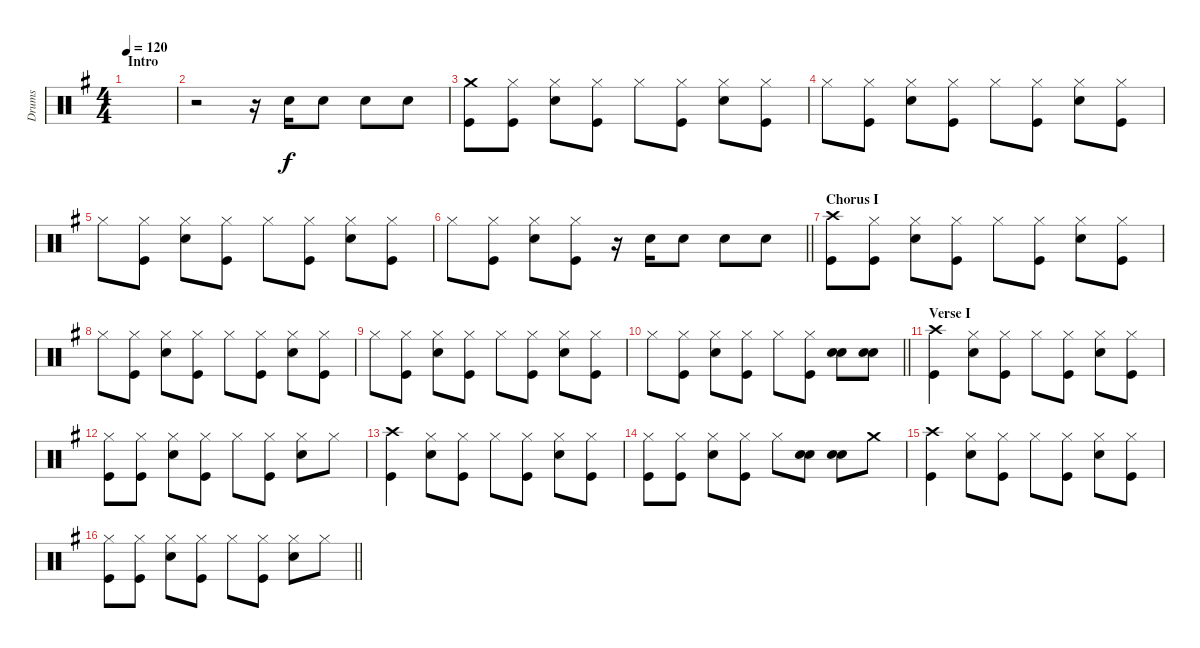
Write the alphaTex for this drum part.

\track ("Drums" "Drums") {instrument percussion}
\staff {score}
\articulation defaults
\ts (4 4)
\section ("" "Intro")
\tempo 120
\clef neutral
\ks g
|
r.2 r.16 "Snare (hit) 2".16 "Snare (hit) 2".8 "Snare (hit) 2".8 "Snare (hit) 2".8 |
("Crash medium (hit)" "Kick (hit)").8 ("Hi-Hat (closed)" "Kick (hit)").8 ("Hi-Hat (closed)" "Snare (hit) 2").8 ("Hi-Hat (closed)" "Kick (hit)").8 "Hi-Hat (closed)".8 ("Hi-Hat (closed)" "Kick (hit)").8 ("Hi-Hat (closed)" "Snare (hit) 2").8 ("Hi-Hat (closed)" "Kick (hit)").8 |
"Hi-Hat (closed)".8 ("Hi-Hat (closed)" "Kick (hit)").8 ("Hi-Hat (closed)" "Snare (hit) 2").8 ("Hi-Hat (closed)" "Kick (hit)").8 "Hi-Hat (closed)".8 ("Hi-Hat (closed)" "Kick (hit)").8 ("Hi-Hat (closed)" "Snare (hit) 2").8 ("Hi-Hat (closed)" "Kick (hit)").8 |
"Hi-Hat (closed)".8 ("Hi-Hat (closed)" "Kick (hit)").8 ("Hi-Hat (closed)" "Snare (hit) 2").8 ("Hi-Hat (closed)" "Kick (hit)").8 "Hi-Hat (closed)".8 ("Hi-Hat (closed)" "Kick (hit)").8 ("Hi-Hat (closed)" "Snare (hit) 2").8 ("Hi-Hat (closed)" "Kick (hit)").8 |
\barLineRight lightlight "Hi-Hat (closed)".8
("Hi-Hat (closed)" "Kick (hit)").8 ("Hi-Hat (closed)" "Snare (hit) 2").8 ("Hi-Hat (closed)" "Kick (hit)").8 r.16 "Snare (hit) 2".16 "Snare (hit) 2".8 "Snare (hit) 2".8 "Snare (hit) 2".8 |
\section ("" "Chorus I")
("Crash high (hit)" "Kick (hit)").8 ("Hi-Hat (closed)" "Kick (hit)").8 ("Hi-Hat (closed)" "Snare (hit) 2").8 ("Hi-Hat (closed)" "Kick (hit)").8 "Hi-Hat (closed)".8 ("Hi-Hat (closed)" "Kick (hit)").8 ("Hi-Hat (closed)" "Snare (hit) 2").8 ("Hi-Hat (closed)" "Kick (hit)").8 |
"Hi-Hat (closed)".8 ("Hi-Hat (closed)" "Kick (hit)").8 ("Hi-Hat (closed)" "Snare (hit) 2").8 ("Hi-Hat (closed)" "Kick (hit)").8 "Hi-Hat (closed)".8 ("Hi-Hat (closed)" "Kick (hit)").8 ("Hi-Hat (closed)" "Snare (hit) 2").8 ("Hi-Hat (closed)" "Kick (hit)").8 |
"Hi-Hat (closed)".8 ("Hi-Hat (closed)" "Kick (hit)").8 ("Hi-Hat (closed)" "Snare (hit) 2").8 ("Hi-Hat (closed)" "Kick (hit)").8 "Hi-Hat (closed)".8 ("Hi-Hat (closed)" "Kick (hit)").8 ("Hi-Hat (closed)" "Snare (hit) 2").8 ("Hi-Hat (closed)" "Kick (hit)").8 |
\barLineRight lightlight "Hi-Hat (closed)".8
("Hi-Hat (closed)" "Kick (hit)").8 ("Hi-Hat (closed)" "Snare (hit) 2").8 ("Hi-Hat (closed)" "Kick (hit)").8 "Hi-Hat (closed)".8 ("Hi-Hat (closed)" "Kick (hit)").8 ("Snare (hit) 2" "Snare (hit) 2").8 ("Snare (hit) 2" "Snare (hit) 2").8 |
\section ("" "Verse I")
("Crash high (hit)" "Kick (hit)").4 ("Hi-Hat (closed)" "Snare (hit) 2").8 ("Hi-Hat (closed)" "Kick (hit)").8 "Hi-Hat (closed)".8 ("Hi-Hat (closed)" "Kick (hit)").8 ("Hi-Hat (closed)" "Snare (hit) 2").8 ("Hi-Hat (closed)" "Kick (hit)").8 |
("Hi-Hat (closed)" "Kick (hit)").8 ("Hi-Hat (closed)" "Kick (hit)").8 ("Hi-Hat (closed)" "Snare (hit) 2").8 ("Hi-Hat (closed)" "Kick (hit)").8 "Hi-Hat (closed)".8 ("Hi-Hat (closed)" "Kick (hit)").8 ("Hi-Hat (closed)" "Snare (hit) 2").8 "Hi-Hat (closed)".8 |
("Crash high (hit)" "Kick (hit)").4 ("Hi-Hat (closed)" "Snare (hit) 2").8 ("Hi-Hat (closed)" "Kick (hit)").8 "Hi-Hat (closed)".8 ("Hi-Hat (closed)" "Kick (hit)").8 ("Hi-Hat (closed)" "Snare (hit) 2").8 ("Hi-Hat (closed)" "Kick (hit)").8 |
("Hi-Hat (closed)" "Kick (hit)").8 ("Hi-Hat (closed)" "Kick (hit)").8 ("Hi-Hat (closed)" "Snare (hit) 2").8 ("Hi-Hat (closed)" "Kick (hit)").8 "Hi-Hat (closed)".8 ("Snare (hit) 2" "Snare (hit) 2").8 ("Snare (hit) 2" "Snare (hit) 2").8 "Crash medium (hit)".8 |
("Crash high (hit)" "Kick (hit)").4 ("Hi-Hat (closed)" "Snare (hit) 2").8 ("Hi-Hat (closed)" "Kick (hit)").8 "Hi-Hat (closed)".8 ("Hi-Hat (closed)" "Kick (hit)").8 ("Hi-Hat (closed)" "Snare (hit) 2").8 ("Hi-Hat (closed)" "Kick (hit)").8 |
\barLineRight lightlight
("Hi-Hat (closed)" "Kick (hit)").8 ("Hi-Hat (closed)" "Kick (hit)").8 ("Hi-Hat (closed)" "Snare (hit) 2").8 ("Hi-Hat (closed)" "Kick (hit)").8 "Hi-Hat (closed)".8 ("Hi-Hat (closed)" "Kick (hit)").8 ("Hi-Hat (closed)" "Snare (hit) 2").8 "Hi-Hat (closed)".8
